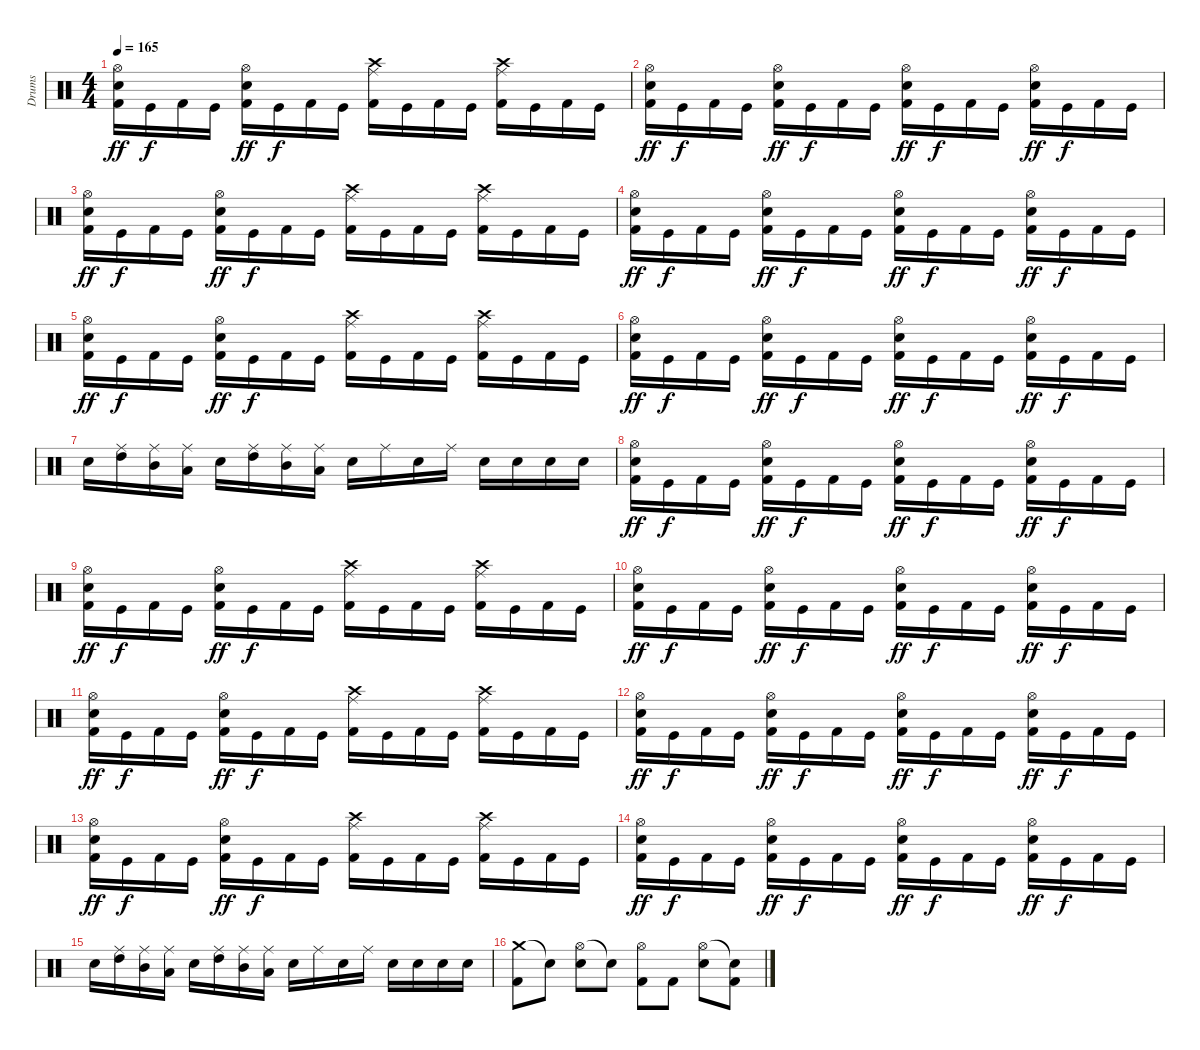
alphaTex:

\track ("Drums" "Drums") {instrument percussion}
\staff {score}
\articulation defaults
\ts (4 4)
\tempo 165
\clef neutral
\ks c
("Hi-Hat (open)" "Snare (hit) 2" "Kick (hit) 2").16{dy ff} "Kick (hit)".16{dy f} "Kick (hit) 2".16 "Kick (hit)".16 ("Hi-Hat (open)" "Snare (hit) 2" "Kick (hit) 2").16{dy ff} "Kick (hit)".16{dy f} "Kick (hit) 2".16 "Kick (hit)".16 ("Crash high (hit)" "Ride (middle)" "Kick (hit) 2").16 "Kick (hit)".16 "Kick (hit) 2".16 "Kick (hit)".16 ("Crash high (hit)" "Ride (middle)" "Kick (hit) 2").16 "Kick (hit)".16 "Kick (hit) 2".16 "Kick (hit)".16 |
("Hi-Hat (open)" "Snare (hit) 2" "Kick (hit) 2").16{dy ff} "Kick (hit)".16{dy f} "Kick (hit) 2".16 "Kick (hit)".16 ("Hi-Hat (open)" "Snare (hit) 2" "Kick (hit) 2").16{dy ff} "Kick (hit)".16{dy f} "Kick (hit) 2".16 "Kick (hit)".16 ("Hi-Hat (open)" "Snare (hit) 2" "Kick (hit) 2").16{dy ff} "Kick (hit)".16{dy f} "Kick (hit) 2".16 "Kick (hit)".16 ("Hi-Hat (open)" "Snare (hit) 2" "Kick (hit) 2").16{dy ff} "Kick (hit)".16{dy f} "Kick (hit) 2".16 "Kick (hit)".16 |
("Hi-Hat (open)" "Snare (hit) 2" "Kick (hit) 2").16{dy ff} "Kick (hit)".16{dy f} "Kick (hit) 2".16 "Kick (hit)".16 ("Hi-Hat (open)" "Snare (hit) 2" "Kick (hit) 2").16{dy ff} "Kick (hit)".16{dy f} "Kick (hit) 2".16 "Kick (hit)".16 ("Crash high (hit)" "Ride (middle)" "Kick (hit) 2").16 "Kick (hit)".16 "Kick (hit) 2".16 "Kick (hit)".16 ("Crash high (hit)" "Ride (middle)" "Kick (hit) 2").16 "Kick (hit)".16 "Kick (hit) 2".16 "Kick (hit)".16 |
("Hi-Hat (open)" "Snare (hit) 2" "Kick (hit) 2").16{dy ff} "Kick (hit)".16{dy f} "Kick (hit) 2".16 "Kick (hit)".16 ("Hi-Hat (open)" "Snare (hit) 2" "Kick (hit) 2").16{dy ff} "Kick (hit)".16{dy f} "Kick (hit) 2".16 "Kick (hit)".16 ("Hi-Hat (open)" "Snare (hit) 2" "Kick (hit) 2").16{dy ff} "Kick (hit)".16{dy f} "Kick (hit) 2".16 "Kick (hit)".16 ("Hi-Hat (open)" "Snare (hit) 2" "Kick (hit) 2").16{dy ff} "Kick (hit)".16{dy f} "Kick (hit) 2".16 "Kick (hit)".16 |
("Hi-Hat (open)" "Snare (hit) 2" "Kick (hit) 2").16{dy ff} "Kick (hit)".16{dy f} "Kick (hit) 2".16 "Kick (hit)".16 ("Hi-Hat (open)" "Snare (hit) 2" "Kick (hit) 2").16{dy ff} "Kick (hit)".16{dy f} "Kick (hit) 2".16 "Kick (hit)".16 ("Crash high (hit)" "Ride (middle)" "Kick (hit) 2").16 "Kick (hit)".16 "Kick (hit) 2".16 "Kick (hit)".16 ("Crash high (hit)" "Ride (middle)" "Kick (hit) 2").16 "Kick (hit)".16 "Kick (hit) 2".16 "Kick (hit)".16 |
("Hi-Hat (open)" "Snare (hit) 2" "Kick (hit) 2").16{dy ff} "Kick (hit)".16{dy f} "Kick (hit) 2".16 "Kick (hit)".16 ("Hi-Hat (open)" "Snare (hit) 2" "Kick (hit) 2").16{dy ff} "Kick (hit)".16{dy f} "Kick (hit) 2".16 "Kick (hit)".16 ("Hi-Hat (open)" "Snare (hit) 2" "Kick (hit) 2").16{dy ff} "Kick (hit)".16{dy f} "Kick (hit) 2".16 "Kick (hit)".16 ("Hi-Hat (open)" "Snare (hit) 2" "Kick (hit) 2").16{dy ff} "Kick (hit)".16{dy f} "Kick (hit) 2".16 "Kick (hit)".16 |
"Snare (hit) 2".16 ("Ride (middle)" "High Tom (hit)").16 ("Ride (middle)" "Mid Tom (hit)").16 ("Ride (middle)" "Low Tom (hit)").16 "Snare (hit) 2".16 ("Ride (middle)" "High Tom (hit)").16 ("Ride (middle)" "Mid Tom (hit)").16 ("Ride (middle)" "Low Tom (hit)").16 "Snare (hit) 2".16 "Ride (middle)".16 "Snare (hit) 2".16 "Ride (middle)".16 "Snare (hit) 2".16 "Snare (hit) 2".16 "Snare (hit) 2".16 "Snare (hit) 2".16 |
("Hi-Hat (open)" "Snare (hit) 2" "Kick (hit) 2").16{dy ff} "Kick (hit)".16{dy f} "Kick (hit) 2".16 "Kick (hit)".16 ("Hi-Hat (open)" "Snare (hit) 2" "Kick (hit) 2").16{dy ff} "Kick (hit)".16{dy f} "Kick (hit) 2".16 "Kick (hit)".16 ("Hi-Hat (open)" "Snare (hit) 2" "Kick (hit) 2").16{dy ff} "Kick (hit)".16{dy f} "Kick (hit) 2".16 "Kick (hit)".16 ("Hi-Hat (open)" "Snare (hit) 2" "Kick (hit) 2").16{dy ff} "Kick (hit)".16{dy f} "Kick (hit) 2".16 "Kick (hit)".16 |
("Hi-Hat (open)" "Snare (hit) 2" "Kick (hit) 2").16{dy ff} "Kick (hit)".16{dy f} "Kick (hit) 2".16 "Kick (hit)".16 ("Hi-Hat (open)" "Snare (hit) 2" "Kick (hit) 2").16{dy ff} "Kick (hit)".16{dy f} "Kick (hit) 2".16 "Kick (hit)".16 ("Crash high (hit)" "Ride (middle)" "Kick (hit) 2").16 "Kick (hit)".16 "Kick (hit) 2".16 "Kick (hit)".16 ("Crash high (hit)" "Ride (middle)" "Kick (hit) 2").16 "Kick (hit)".16 "Kick (hit) 2".16 "Kick (hit)".16 |
("Hi-Hat (open)" "Snare (hit) 2" "Kick (hit) 2").16{dy ff} "Kick (hit)".16{dy f} "Kick (hit) 2".16 "Kick (hit)".16 ("Hi-Hat (open)" "Snare (hit) 2" "Kick (hit) 2").16{dy ff} "Kick (hit)".16{dy f} "Kick (hit) 2".16 "Kick (hit)".16 ("Hi-Hat (open)" "Snare (hit) 2" "Kick (hit) 2").16{dy ff} "Kick (hit)".16{dy f} "Kick (hit) 2".16 "Kick (hit)".16 ("Hi-Hat (open)" "Snare (hit) 2" "Kick (hit) 2").16{dy ff} "Kick (hit)".16{dy f} "Kick (hit) 2".16 "Kick (hit)".16 |
("Hi-Hat (open)" "Snare (hit) 2" "Kick (hit) 2").16{dy ff} "Kick (hit)".16{dy f} "Kick (hit) 2".16 "Kick (hit)".16 ("Hi-Hat (open)" "Snare (hit) 2" "Kick (hit) 2").16{dy ff} "Kick (hit)".16{dy f} "Kick (hit) 2".16 "Kick (hit)".16 ("Crash high (hit)" "Ride (middle)" "Kick (hit) 2").16 "Kick (hit)".16 "Kick (hit) 2".16 "Kick (hit)".16 ("Crash high (hit)" "Ride (middle)" "Kick (hit) 2").16 "Kick (hit)".16 "Kick (hit) 2".16 "Kick (hit)".16 |
("Hi-Hat (open)" "Snare (hit) 2" "Kick (hit) 2").16{dy ff} "Kick (hit)".16{dy f} "Kick (hit) 2".16 "Kick (hit)".16 ("Hi-Hat (open)" "Snare (hit) 2" "Kick (hit) 2").16{dy ff} "Kick (hit)".16{dy f} "Kick (hit) 2".16 "Kick (hit)".16 ("Hi-Hat (open)" "Snare (hit) 2" "Kick (hit) 2").16{dy ff} "Kick (hit)".16{dy f} "Kick (hit) 2".16 "Kick (hit)".16 ("Hi-Hat (open)" "Snare (hit) 2" "Kick (hit) 2").16{dy ff} "Kick (hit)".16{dy f} "Kick (hit) 2".16 "Kick (hit)".16 |
("Hi-Hat (open)" "Snare (hit) 2" "Kick (hit) 2").16{dy ff} "Kick (hit)".16{dy f} "Kick (hit) 2".16 "Kick (hit)".16 ("Hi-Hat (open)" "Snare (hit) 2" "Kick (hit) 2").16{dy ff} "Kick (hit)".16{dy f} "Kick (hit) 2".16 "Kick (hit)".16 ("Crash high (hit)" "Ride (middle)" "Kick (hit) 2").16 "Kick (hit)".16 "Kick (hit) 2".16 "Kick (hit)".16 ("Crash high (hit)" "Ride (middle)" "Kick (hit) 2").16 "Kick (hit)".16 "Kick (hit) 2".16 "Kick (hit)".16 |
("Hi-Hat (open)" "Snare (hit) 2" "Kick (hit) 2").16{dy ff} "Kick (hit)".16{dy f} "Kick (hit) 2".16 "Kick (hit)".16 ("Hi-Hat (open)" "Snare (hit) 2" "Kick (hit) 2").16{dy ff} "Kick (hit)".16{dy f} "Kick (hit) 2".16 "Kick (hit)".16 ("Hi-Hat (open)" "Snare (hit) 2" "Kick (hit) 2").16{dy ff} "Kick (hit)".16{dy f} "Kick (hit) 2".16 "Kick (hit)".16 ("Hi-Hat (open)" "Snare (hit) 2" "Kick (hit) 2").16{dy ff} "Kick (hit)".16{dy f} "Kick (hit) 2".16 "Kick (hit)".16 |
"Snare (hit) 2".16 ("Ride (middle)" "High Tom (hit)").16 ("Ride (middle)" "Mid Tom (hit)").16 ("Ride (middle)" "Low Tom (hit)").16 "Snare (hit) 2".16 ("Ride (middle)" "High Tom (hit)").16 ("Ride (middle)" "Mid Tom (hit)").16 ("Ride (middle)" "Low Tom (hit)").16 "Snare (hit) 2".16 "Ride (middle)".16 "Snare (hit) 2".16 "Ride (middle)".16 "Snare (hit) 2".16 "Snare (hit) 2".16 "Snare (hit) 2".16 "Snare (hit) 2".16 |
("Crash medium (hit)" "Kick (hit) 2").8 "Snare (hit)"{t}.8 ("Hi-Hat (open)" "Electric Snare (hit)").8 "Snare (hit)"{t}.8 ("Hi-Hat (open)" "Kick (hit) 2").8 "Kick (hit) 2".8 ("Hi-Hat (open)" "Electric Snare (hit)").8 ("Snare (hit)"{t} "Kick (hit) 2").8
